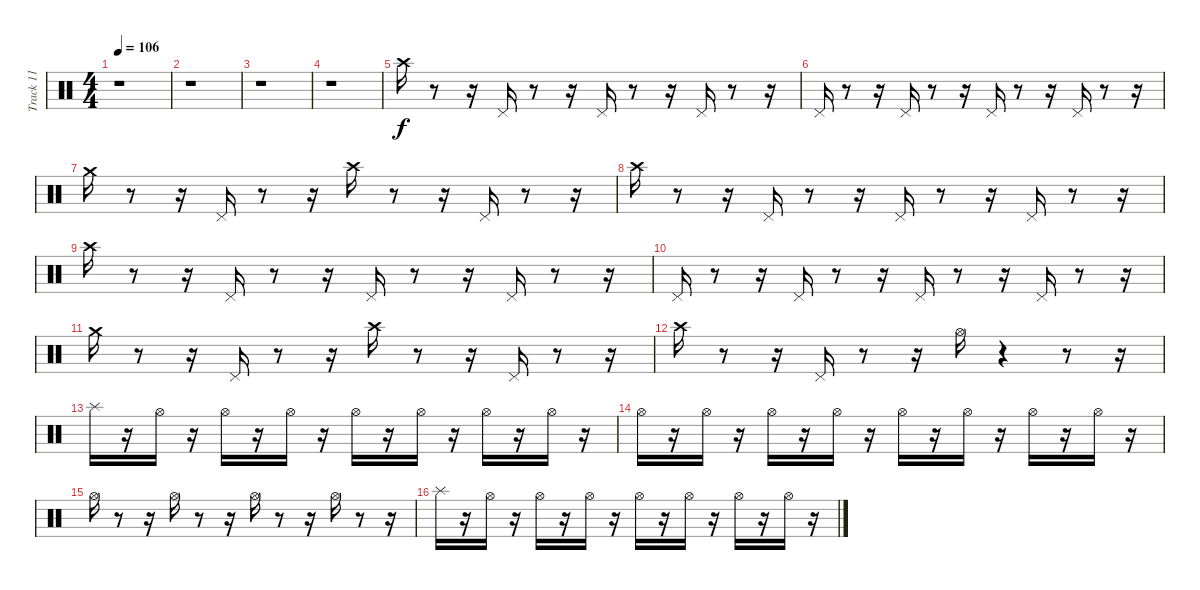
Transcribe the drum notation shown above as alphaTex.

\track ("Track 11" "Track 11") {instrument percussion}
\staff {score}
\articulation defaults
\ts (4 4)
\tempo 106
\clef neutral
\ks c
r.1{dy f} |
r.1 |
r.1 |
r.1 |
"Crash high (hit)".16 r.8 r.16 "Pedal Hi-Hat (hit)".16 r.8 r.16 "Pedal Hi-Hat (hit)".16 r.8 r.16 "Pedal Hi-Hat (hit)".16 r.8 r.16 |
"Pedal Hi-Hat (hit)".16 r.8 r.16 "Pedal Hi-Hat (hit)".16 r.8 r.16 "Pedal Hi-Hat (hit)".16 r.8 r.16 "Pedal Hi-Hat (hit)".16 r.8 r.16 |
"Crash medium (hit)".16 r.8 r.16 "Pedal Hi-Hat (hit)".16 r.8 r.16 "Crash high (hit)".16 r.8 r.16 "Pedal Hi-Hat (hit)".16 r.8 r.16 |
"Crash high (hit)".16 r.8 r.16 "Pedal Hi-Hat (hit)".16 r.8 r.16 "Pedal Hi-Hat (hit)".16 r.8 r.16 "Pedal Hi-Hat (hit)".16 r.8 r.16 |
"Crash high (hit)".16 r.8 r.16 "Pedal Hi-Hat (hit)".16 r.8 r.16 "Pedal Hi-Hat (hit)".16 r.8 r.16 "Pedal Hi-Hat (hit)".16 r.8 r.16 |
"Pedal Hi-Hat (hit)".16 r.8 r.16 "Pedal Hi-Hat (hit)".16 r.8 r.16 "Pedal Hi-Hat (hit)".16 r.8 r.16 "Pedal Hi-Hat (hit)".16 r.8 r.16 |
"Crash medium (hit)".16 r.8 r.16 "Pedal Hi-Hat (hit)".16 r.8 r.16 "Crash high (hit)".16 r.8 r.16 "Pedal Hi-Hat (hit)".16 r.8 r.16 |
"Crash high (hit)".16 r.8 r.16 "Pedal Hi-Hat (hit)".16 r.8 r.16 "Hi-Hat (open)".16 r.4 r.8 r.16 |
"Splash (hit)".16 r.16 "Hi-Hat (open)".16 r.16 "Hi-Hat (open)".16 r.16 "Hi-Hat (open)".16 r.16 "Hi-Hat (open)".16 r.16 "Hi-Hat (open)".16 r.16 "Hi-Hat (open)".16 r.16 "Hi-Hat (open)".16 r.16 |
"Hi-Hat (open)".16 r.16 "Hi-Hat (open)".16 r.16 "Hi-Hat (open)".16 r.16 "Hi-Hat (open)".16 r.16 "Hi-Hat (open)".16 r.16 "Hi-Hat (open)".16 r.16 "Hi-Hat (open)".16 r.16 "Hi-Hat (open)".16 r.16 |
"Hi-Hat (open)".16 r.8 r.16 "Hi-Hat (open)".16 r.8 r.16 "Hi-Hat (open)".16 r.8 r.16 "Hi-Hat (open)".16 r.8 r.16 |
"Splash (hit)".16 r.16 "Hi-Hat (open)".16 r.16 "Hi-Hat (open)".16 r.16 "Hi-Hat (open)".16 r.16 "Hi-Hat (open)".16 r.16 "Hi-Hat (open)".16 r.16 "Hi-Hat (open)".16 r.16 "Hi-Hat (open)".16 r.16
